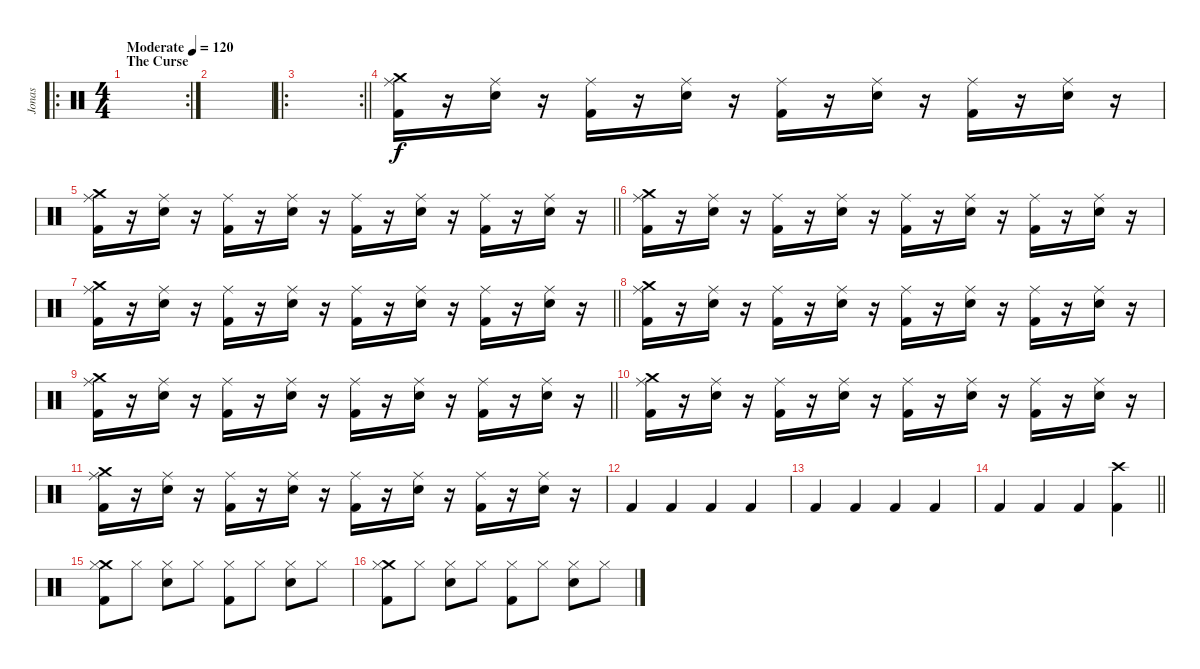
\track ("Jonas" "Jonas") {instrument percussion}
\staff {score}
\articulation defaults
\ro
\rc 2
\ts (4 4)
\section ("" "The Curse")
\tempo (120 "Moderate")
\clef neutral
\ks c
|
|
\ro
\rc 2
\barLineRight lightlight
|
("Crash medium (hit)" "Ride (middle)" "Kick (hit) 2").16 r.16 ("Ride (middle)" "Snare (hit) 2").16 r.16 ("Ride (middle)" "Kick (hit) 2").16 r.16 ("Ride (middle)" "Snare (hit) 2").16 r.16 ("Ride (middle)" "Kick (hit) 2").16 r.16 ("Ride (middle)" "Snare (hit) 2").16 r.16 ("Ride (middle)" "Kick (hit) 2").16 r.16 ("Ride (middle)" "Snare (hit) 2").16 r.16 |
\barLineRight lightlight
("Crash medium (hit)" "Ride (middle)" "Kick (hit) 2").16 r.16 ("Ride (middle)" "Snare (hit) 2").16 r.16 ("Ride (middle)" "Kick (hit) 2").16 r.16 ("Ride (middle)" "Snare (hit) 2").16 r.16 ("Ride (middle)" "Kick (hit) 2").16 r.16 ("Ride (middle)" "Snare (hit) 2").16 r.16 ("Ride (middle)" "Kick (hit) 2").16 r.16 ("Ride (middle)" "Snare (hit) 2").16 r.16 |
("Crash medium (hit)" "Ride (middle)" "Kick (hit) 2").16 r.16 ("Ride (middle)" "Snare (hit) 2").16 r.16 ("Ride (middle)" "Kick (hit) 2").16 r.16 ("Ride (middle)" "Snare (hit) 2").16 r.16 ("Ride (middle)" "Kick (hit) 2").16 r.16 ("Ride (middle)" "Snare (hit) 2").16 r.16 ("Ride (middle)" "Kick (hit) 2").16 r.16 ("Ride (middle)" "Snare (hit) 2").16 r.16 |
\barLineRight lightlight
("Crash medium (hit)" "Ride (middle)" "Kick (hit) 2").16 r.16 ("Ride (middle)" "Snare (hit) 2").16 r.16 ("Ride (middle)" "Kick (hit) 2").16 r.16 ("Ride (middle)" "Snare (hit) 2").16 r.16 ("Ride (middle)" "Kick (hit) 2").16 r.16 ("Ride (middle)" "Snare (hit) 2").16 r.16 ("Ride (middle)" "Kick (hit) 2").16 r.16 ("Ride (middle)" "Snare (hit) 2").16 r.16 |
("Crash medium (hit)" "Ride (middle)" "Kick (hit) 2").16 r.16 ("Ride (middle)" "Snare (hit) 2").16 r.16 ("Ride (middle)" "Kick (hit) 2").16 r.16 ("Ride (middle)" "Snare (hit) 2").16 r.16 ("Ride (middle)" "Kick (hit) 2").16 r.16 ("Ride (middle)" "Snare (hit) 2").16 r.16 ("Ride (middle)" "Kick (hit) 2").16 r.16 ("Ride (middle)" "Snare (hit) 2").16 r.16 |
\barLineRight lightlight
("Crash medium (hit)" "Ride (middle)" "Kick (hit) 2").16 r.16 ("Ride (middle)" "Snare (hit) 2").16 r.16 ("Ride (middle)" "Kick (hit) 2").16 r.16 ("Ride (middle)" "Snare (hit) 2").16 r.16 ("Ride (middle)" "Kick (hit) 2").16 r.16 ("Ride (middle)" "Snare (hit) 2").16 r.16 ("Ride (middle)" "Kick (hit) 2").16 r.16 ("Ride (middle)" "Snare (hit) 2").16 r.16 |
("Crash medium (hit)" "Ride (middle)" "Kick (hit) 2").16 r.16 ("Ride (middle)" "Snare (hit) 2").16 r.16 ("Ride (middle)" "Kick (hit) 2").16 r.16 ("Ride (middle)" "Snare (hit) 2").16 r.16 ("Ride (middle)" "Kick (hit) 2").16 r.16 ("Ride (middle)" "Snare (hit) 2").16 r.16 ("Ride (middle)" "Kick (hit) 2").16 r.16 ("Ride (middle)" "Snare (hit) 2").16 r.16 |
("Crash medium (hit)" "Ride (middle)" "Kick (hit) 2").16 r.16 ("Ride (middle)" "Snare (hit) 2").16 r.16 ("Ride (middle)" "Kick (hit) 2").16 r.16 ("Ride (middle)" "Snare (hit) 2").16 r.16 ("Ride (middle)" "Kick (hit) 2").16 r.16 ("Ride (middle)" "Snare (hit) 2").16 r.16 ("Ride (middle)" "Kick (hit) 2").16 r.16 ("Ride (middle)" "Snare (hit) 2").16 r.16 |
"Kick (hit) 2".4 "Kick (hit) 2".4 "Kick (hit) 2".4 "Kick (hit) 2".4 |
"Kick (hit) 2".4 "Kick (hit) 2".4 "Kick (hit) 2".4 "Kick (hit) 2".4 |
\barLineRight lightlight "Kick (hit) 2".4 "Kick (hit) 2".4 "Kick (hit) 2".4
("Crash high (hit)" "Kick (hit) 2").4 |
("Crash medium (hit)" "Hi-Hat (closed)" "Kick (hit) 2").8{dy f} "Hi-Hat (closed)".8 ("Hi-Hat (closed)" "Snare (hit) 2").8 "Hi-Hat (closed)".8 ("Hi-Hat (closed)" "Kick (hit) 2").8 "Hi-Hat (closed)".8 ("Hi-Hat (closed)" "Snare (hit) 2").8 "Hi-Hat (closed)".8 |
("Crash medium (hit)" "Hi-Hat (closed)" "Kick (hit) 2").8 "Hi-Hat (closed)".8 ("Hi-Hat (closed)" "Snare (hit) 2").8 "Hi-Hat (closed)".8 ("Hi-Hat (closed)" "Kick (hit) 2").8 "Hi-Hat (closed)".8 ("Hi-Hat (closed)" "Snare (hit) 2").8 "Hi-Hat (closed)".8
